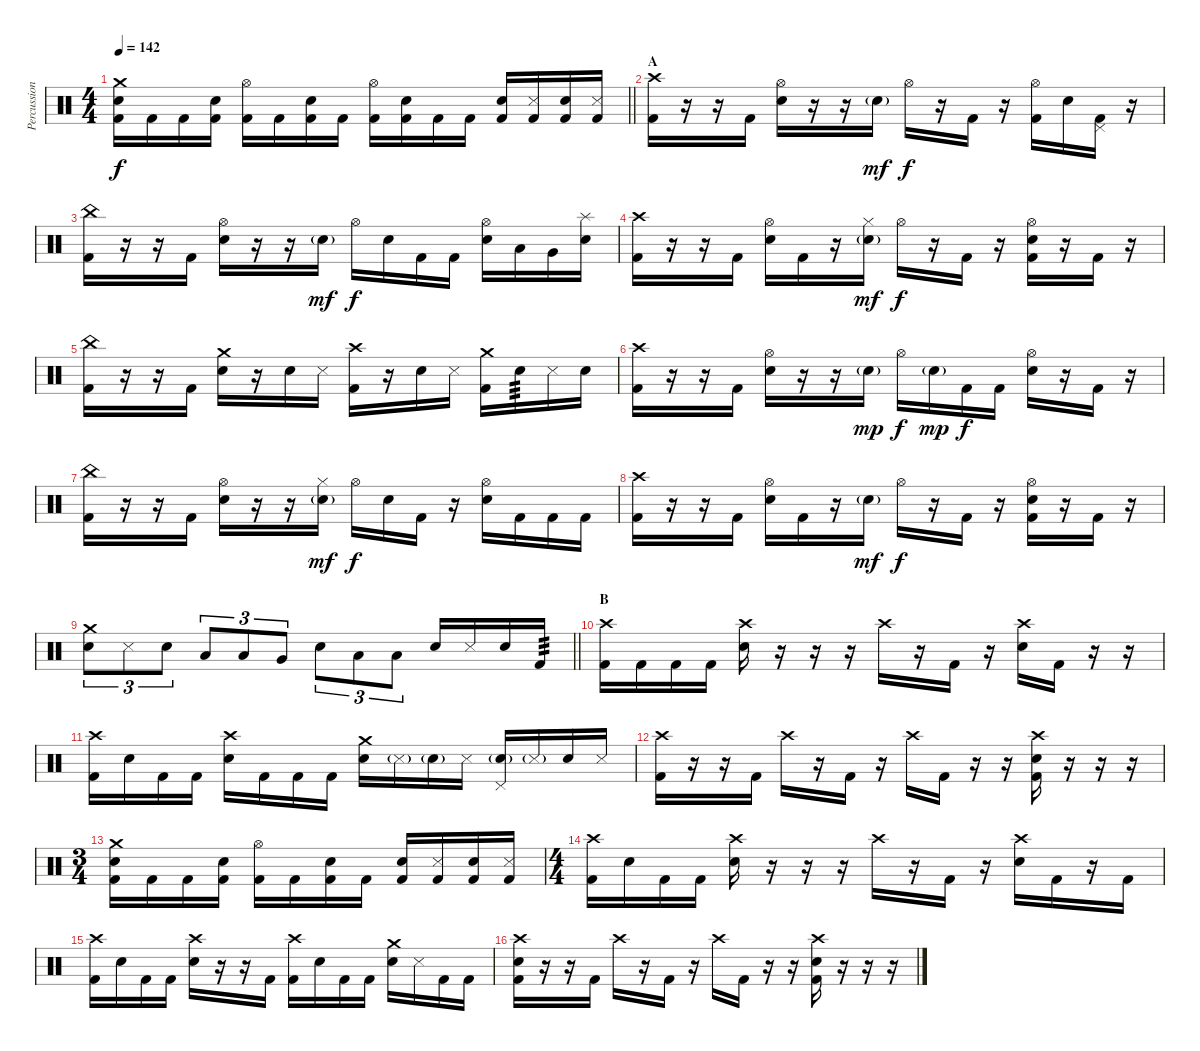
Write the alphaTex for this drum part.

\track ("Percussion" "Percussion") {instrument percussion}
\staff {score}
\articulation defaults
\ts (4 4)
\tempo 142
\clef neutral
\barLineRight lightlight
\ks c
("Crash medium (hit)" "Snare (hit) 2" "Kick (hit) 2").16{dy f} "Kick (hit) 2".16 "Kick (hit) 2".16 ("Snare (hit) 2" "Kick (hit) 2").16 ("Hi-Hat (open)" "Kick (hit) 2").16 "Kick (hit) 2".16 ("Snare (hit) 2" "Kick (hit) 2").16 "Kick (hit) 2".16 ("Hi-Hat (open)" "Kick (hit) 2").16 ("Snare (hit) 2" "Kick (hit) 2").16 "Kick (hit) 2".16 "Kick (hit) 2".16 ("Snare (hit) 2" "Kick (hit) 2").16 ("Metronome (hit)" "Kick (hit) 2").16 ("Snare (hit) 2" "Kick (hit) 2").16 ("Metronome (hit)" "Kick (hit) 2").16 |
\section ("" "A")
("Crash high (hit)" "Kick (hit) 2").16 r.16 r.16 "Kick (hit) 2".16 ("Hi-Hat (open)" "Snare (hit) 2").16 r.16 r.16 "Snare (hit) 2"{g}.16{dy mf} "Hi-Hat (open)".16{dy f} r.16 "Kick (hit) 2".16 r.16 ("Hi-Hat (open)" "Kick (hit) 2").16 "Snare (hit) 2".16 ("Pedal Hi-Hat (hit)" "Kick (hit) 2").16 r.16 |
("China (hit)" "Kick (hit) 2").16 r.16 r.16 "Kick (hit) 2".16 ("Hi-Hat (open)" "Snare (hit) 2").16 r.16 r.16 "Snare (hit) 2"{g}.16{dy mf} "Hi-Hat (open)".16{dy f} "Snare (hit) 2".16 "Kick (hit) 2".16 "Kick (hit) 2".16 ("Hi-Hat (open)" "Snare (hit) 2").16 "Low Tom (hit)".16 "Very Low Tom (hit)".16 ("Splash (hit)" "Snare (hit) 2").16 |
("Crash high (hit)" "Kick (hit) 2").16 r.16 r.16 "Kick (hit) 2".16 ("Hi-Hat (open)" "Snare (hit) 2").16 "Kick (hit) 2".16 r.16 ("Hi-Hat (closed)" "Snare (hit) 2"{g}).16{dy mf} "Hi-Hat (open)".16{dy f} r.16 "Kick (hit) 2".16 r.16 ("Hi-Hat (open)" "Snare (hit) 2" "Kick (hit) 2").16 r.16 "Kick (hit) 2".16 r.16 |
("China (hit)" "Kick (hit) 2").16 r.16 r.16 "Kick (hit) 2".16 ("Crash medium (hit)" "Snare (hit) 2").16 r.16 "Snare (hit) 2".16 "Metronome (hit)".16 ("Crash high (hit)" "Kick (hit) 2").16 r.16 "Snare (hit) 2".16 "Metronome (hit)".16 ("Crash medium (hit)" "Kick (hit) 2").16 "Snare (hit) 2".16{tp 3} "Metronome (hit)".16 "Snare (hit) 2".16 |
("Crash high (hit)" "Kick (hit) 2").16 r.16 r.16 "Kick (hit) 2".16 ("Hi-Hat (open)" "Snare (hit) 2").16 r.16 r.16 "Snare (hit) 2"{g}.16{dy mp} "Hi-Hat (open)".16{dy f} "Snare (hit) 2"{g}.16{dy mp} "Kick (hit) 2".16{dy f} "Kick (hit) 2".16 ("Hi-Hat (open)" "Snare (hit) 2").16 r.16 "Kick (hit) 2".16 r.16 |
("China (hit)" "Kick (hit) 2").16 r.16 r.16 "Kick (hit) 2".16 ("Hi-Hat (open)" "Snare (hit) 2").16 r.16 r.16 ("Hi-Hat (closed)" "Snare (hit) 2"{g}).16{dy mf} "Hi-Hat (open)".16{dy f} "Snare (hit) 2".16 "Kick (hit) 2".16 r.16 ("Hi-Hat (open)" "Snare (hit) 2").16 "Kick (hit) 2".16 "Kick (hit) 2".16 "Kick (hit) 2".16 |
("Crash high (hit)" "Kick (hit) 2").16 r.16 r.16 "Kick (hit) 2".16 ("Hi-Hat (open)" "Snare (hit) 2").16 "Kick (hit) 2".16 r.16 "Snare (hit) 2"{g}.16{dy mf} "Hi-Hat (open)".16{dy f} r.16 "Kick (hit) 2".16 r.16 ("Hi-Hat (open)" "Snare (hit) 2" "Kick (hit) 2").16 r.16 "Kick (hit) 2".16 r.16 |
\barLineRight lightlight
("Crash medium (hit)" "Snare (hit) 2").8{tu (3 2)} "Metronome (hit)".8{tu (3 2)} "Snare (hit) 2".8{tu (3 2)} "Low Tom (hit)".8{tu (3 2)} "Low Tom (hit)".8{tu (3 2)} "Very Low Tom (hit)".8{tu (3 2)} "Snare (hit) 2".8{tu (3 2)} "Low Tom (hit)".8{tu (3 2)} "Low Tom (hit)".8{tu (3 2)} "Snare (hit) 2".16 "Metronome (hit)".16 "Snare (hit) 2".16 "Kick (hit) 2".16{tp 3} |
\section ("" "B")
("Crash high (hit)" "Kick (hit) 2").16 "Kick (hit) 2".16 "Kick (hit) 2".16 "Kick (hit) 2".16 ("Crash high (hit)" "Snare (hit) 2").16 r.16 r.16 r.16 "Crash high (hit)".16 r.16 "Kick (hit) 2".16 r.16 ("Crash high (hit)" "Snare (hit) 2").16 "Kick (hit) 2".16 r.16 r.16 |
("Crash high (hit)" "Kick (hit) 2").16 "Snare (hit) 2".16 "Kick (hit) 2".16 "Kick (hit) 2".16 ("Crash high (hit)" "Snare (hit) 2").16 "Kick (hit) 2".16 "Kick (hit) 2".16 "Kick (hit) 2".16 ("Crash medium (hit)" "Snare (hit) 2").16 "Metronome (hit)"{g}.16 "Snare (hit) 2"{g}.16 "Metronome (hit)".16 ("Pedal Hi-Hat (hit)" "Snare (hit) 2"{g}).16 "Metronome (hit)"{g}.16 "Snare (hit) 2".16 "Metronome (hit)".16 |
("Crash high (hit)" "Kick (hit) 2").16 r.16 r.16 "Kick (hit) 2".16 "Crash high (hit)".16 r.16 "Kick (hit) 2".16 r.16 "Crash high (hit)".16 "Kick (hit) 2".16 r.16 r.16 ("Crash high (hit)" "Snare (hit) 2" "Kick (hit) 2").16 r.16 r.16 r.16 |
\ts (3 4)
("Crash medium (hit)" "Snare (hit) 2" "Kick (hit) 2").16 "Kick (hit) 2".16 "Kick (hit) 2".16 ("Snare (hit) 2" "Kick (hit) 2").16 ("Hi-Hat (open)" "Kick (hit) 2").16 "Kick (hit) 2".16 ("Snare (hit) 2" "Kick (hit) 2").16 "Kick (hit) 2".16 ("Snare (hit) 2" "Kick (hit) 2").16 ("Metronome (hit)" "Kick (hit) 2").16 ("Snare (hit) 2" "Kick (hit) 2").16 ("Metronome (hit)" "Kick (hit) 2").16 |
\ts (4 4)
("Crash high (hit)" "Kick (hit) 2").16 "Snare (hit) 2".16 "Kick (hit) 2".16 "Kick (hit) 2".16 ("Crash high (hit)" "Snare (hit) 2").16 r.16 r.16 r.16 "Crash high (hit)".16 r.16 "Kick (hit) 2".16 r.16 ("Crash high (hit)" "Snare (hit) 2").16 "Kick (hit) 2".16 r.16 "Kick (hit) 2".16 |
("Crash high (hit)" "Kick (hit) 2").16 "Snare (hit) 2".16 "Kick (hit) 2".16 "Kick (hit) 2".16 ("Crash high (hit)" "Snare (hit) 2").16 r.16 r.16 "Kick (hit) 2".16 ("Crash high (hit)" "Kick (hit) 2").16 "Snare (hit) 2".16 "Kick (hit) 2".16 "Kick (hit) 2".16 ("Crash medium (hit)" "Snare (hit) 2").16 "Metronome (hit)".16 "Kick (hit) 2".16 "Kick (hit) 2".16 |
("Crash high (hit)" "Snare (hit) 2" "Kick (hit) 2").16 r.16 r.16 "Kick (hit) 2".16 "Crash high (hit)".16 r.16 "Kick (hit) 2".16 r.16 "Crash high (hit)".16 "Kick (hit) 2".16 r.16 r.16 ("Crash high (hit)" "Snare (hit) 2" "Kick (hit) 2").16 r.16 r.16 r.16
